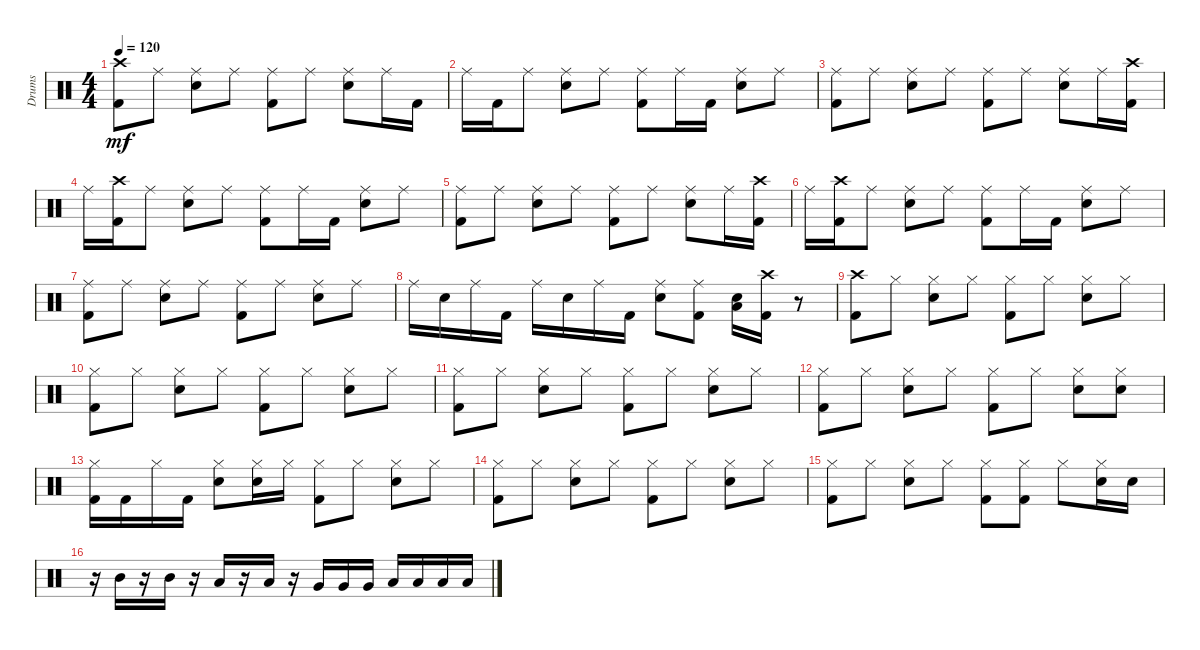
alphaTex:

\track ("Drums" "Drums") {instrument percussion}
\staff {score}
\articulation defaults
\ts (4 4)
\tempo 120
\clef neutral
\ks c
("Crash high (hit)" "Kick (hit) 2").8{dy mf} "Ride (middle)".8 ("Snare (hit) 2" "Ride (middle)").8 "Ride (middle)".8 ("Ride (middle)" "Kick (hit) 2").8 "Ride (middle)".8 ("Snare (hit) 2" "Ride (middle)").8 "Ride (middle)".16 "Kick (hit) 2".16 |
"Ride (middle)".16 "Kick (hit) 2".16 "Ride (middle)".8 ("Snare (hit) 2" "Ride (middle)").8 "Ride (middle)".8 ("Kick (hit) 2" "Ride (middle)").8 "Ride (middle)".16 "Kick (hit) 2".16 ("Ride (middle)" "Snare (hit) 2").8 "Ride (middle)".8 |
("Kick (hit) 2" "Ride (middle)").8 "Ride (middle)".8 ("Snare (hit) 2" "Ride (middle)").8 "Ride (middle)".8 ("Kick (hit) 2" "Ride (middle)").8 "Ride (middle)".8 ("Snare (hit) 2" "Ride (middle)").8 "Ride (middle)".16 ("Kick (hit) 2" "Crash high (hit)").16 |
"Ride (middle)".16 ("Crash high (hit)" "Kick (hit) 2").16 "Ride (middle)".8 ("Snare (hit) 2" "Ride (middle)").8 "Ride (middle)".8 ("Ride (middle)" "Kick (hit) 2").8 "Ride (middle)".16 "Kick (hit) 2".16 ("Snare (hit) 2" "Ride (middle)").8 "Ride (middle)".8 |
("Ride (middle)" "Kick (hit) 2").8 "Ride (middle)".8 ("Ride (middle)" "Snare (hit) 2").8 "Ride (middle)".8 ("Ride (middle)" "Kick (hit) 2").8 "Ride (middle)".8 ("Ride (middle)" "Snare (hit) 2").8 "Ride (middle)".16 ("Crash high (hit)" "Kick (hit) 2").16 |
"Ride (middle)".16 ("Crash high (hit)" "Kick (hit) 2").16 "Ride (middle)".8 ("Ride (middle)" "Snare (hit) 2").8 "Ride (middle)".8 ("Kick (hit) 2" "Ride (middle)").8 "Ride (middle)".16 "Kick (hit) 2".16 ("Snare (hit) 2" "Ride (middle)").8 "Ride (middle)".8 |
("Kick (hit) 2" "Ride (middle)").8 "Ride (middle)".8 ("Snare (hit) 2" "Ride (middle)").8 "Ride (middle)".8 ("Ride (middle)" "Kick (hit) 2").8 "Ride (middle)".8 ("Ride (middle)" "Snare (hit) 2").8 "Ride (middle)".8 |
"Ride (middle)".16 "Snare (hit) 2".16 "Ride (middle)".16 "Kick (hit) 2".16 "Ride (middle)".16 "Snare (hit) 2".16 "Ride (middle)".16 "Kick (hit) 2".16 ("Ride (middle)" "Snare (hit) 2").8 ("Kick (hit) 2" "Ride (middle)").8 ("Low Floor Tom (hit)" "Snare (hit) 2").16 ("Crash high (hit)" "Kick (hit) 2").16 r.8 |
("Crash high (hit)" "Kick (hit) 2").8 "Hi-Hat (closed)".8 ("Snare (hit) 2" "Hi-Hat (closed)").8 "Hi-Hat (closed)".8 ("Kick (hit) 2" "Hi-Hat (closed)").8 "Hi-Hat (closed)".8 ("Snare (hit) 2" "Hi-Hat (closed)").8 "Hi-Hat (closed)".8 |
("Kick (hit) 2" "Hi-Hat (closed)").8 "Hi-Hat (closed)".8 ("Hi-Hat (closed)" "Snare (hit) 2").8 "Hi-Hat (closed)".8 ("Kick (hit) 2" "Hi-Hat (closed)").8 "Hi-Hat (closed)".8 ("Hi-Hat (closed)" "Snare (hit) 2").8 "Hi-Hat (closed)".8 |
("Hi-Hat (closed)" "Kick (hit) 2").8 "Hi-Hat (closed)".8 ("Hi-Hat (closed)" "Snare (hit) 2").8 "Hi-Hat (closed)".8 ("Hi-Hat (closed)" "Kick (hit) 2").8 "Hi-Hat (closed)".8 ("Snare (hit) 2" "Hi-Hat (closed)").8 "Hi-Hat (closed)".8 |
("Hi-Hat (closed)" "Kick (hit) 2").8 "Hi-Hat (closed)".8 ("Snare (hit) 2" "Hi-Hat (closed)").8 "Hi-Hat (closed)".8 ("Hi-Hat (closed)" "Kick (hit) 2").8 "Hi-Hat (closed)".8 ("Hi-Hat (closed)" "Snare (hit) 2").8 ("Snare (hit) 2" "Hi-Hat (closed)").8 |
("Hi-Hat (closed)" "Kick (hit) 2").16 "Kick (hit) 2".16 "Hi-Hat (closed)".16 "Kick (hit) 2".16 ("Hi-Hat (closed)" "Snare (hit) 2").8 ("Snare (hit) 2" "Hi-Hat (closed)").16 "Hi-Hat (closed)".16 ("Kick (hit) 2" "Hi-Hat (closed)").8 "Hi-Hat (closed)".8 ("Hi-Hat (closed)" "Snare (hit) 2").8 "Hi-Hat (closed)".8 |
("Kick (hit) 2" "Hi-Hat (closed)").8 "Hi-Hat (closed)".8 ("Snare (hit) 2" "Hi-Hat (closed)").8 "Hi-Hat (closed)".8 ("Kick (hit) 2" "Hi-Hat (closed)").8 "Hi-Hat (closed)".8 ("Hi-Hat (closed)" "Snare (hit) 2").8 "Hi-Hat (closed)".8 |
("Hi-Hat (closed)" "Kick (hit) 2").8 "Hi-Hat (closed)".8 ("Hi-Hat (closed)" "Snare (hit) 2").8 "Hi-Hat (closed)".8 ("Kick (hit) 2" "Hi-Hat (closed)").8 ("Hi-Hat (closed)" "Kick (hit) 2").8 "Hi-Hat (closed)".8 ("Snare (hit) 2" "Hi-Hat (closed)").16 "Snare (hit) 2".16 |
r.16 "Mid Tom (hit)".16 r.16 "Mid Tom (hit)".16 r.16 "Low Tom (hit)".16 r.16 "Low Tom (hit)".16 r.16 "Very Low Tom (hit)".16 "Very Low Tom (hit)".16 "Very Low Tom (hit)".16 "Low Floor Tom (hit)".16 "Low Floor Tom (hit)".16 "Low Floor Tom (hit)".16 "Low Floor Tom (hit)".16
